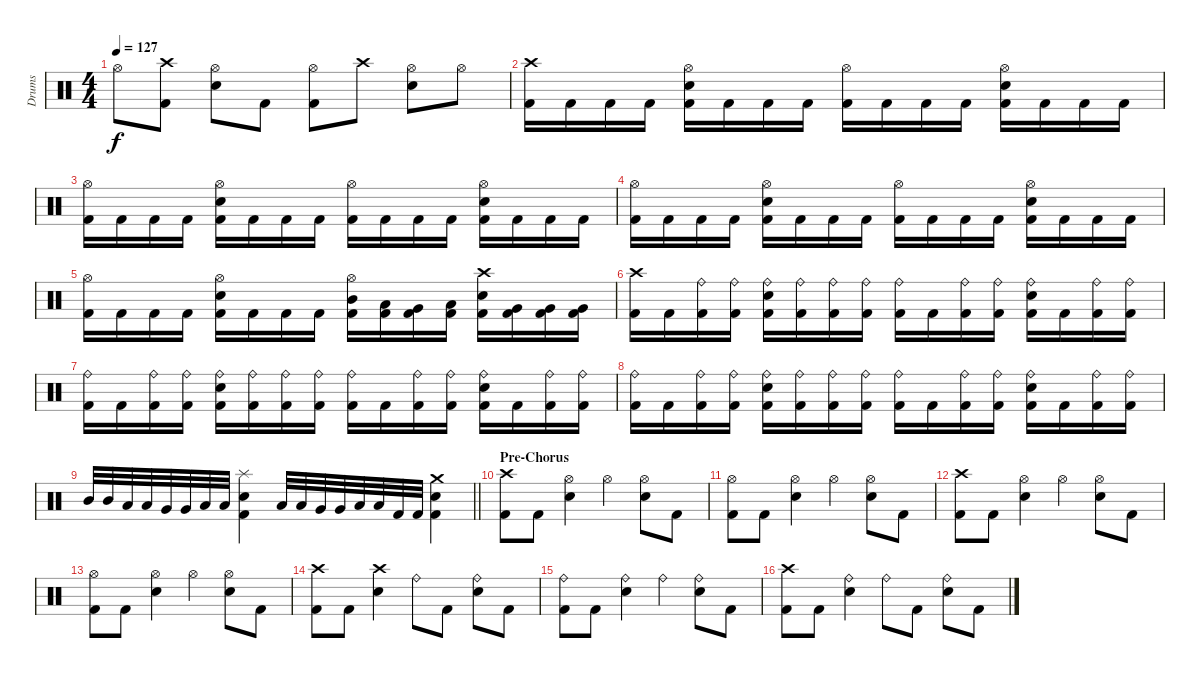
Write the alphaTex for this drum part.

\track ("Drums" "Drums") {instrument percussion}
\staff {score}
\articulation defaults
\ts (4 4)
\tempo 127
\clef neutral
\ks c "Hi-Hat (open)".8{dy f}
("Crash high (hit)" "Kick (hit) 2").8 ("Hi-Hat (open)" "Electric Snare (hit)").8 "Kick (hit) 2".8 ("Hi-Hat (open)" "Kick (hit) 2").8 "Crash high (hit)".8 ("Hi-Hat (open)" "Electric Snare (hit)").8 "Hi-Hat (open)".8 |
("Crash high (hit)" "Kick (hit) 2").16 "Kick (hit) 2".16 "Kick (hit) 2".16 "Kick (hit) 2".16 ("Hi-Hat (open)" "Electric Snare (hit)" "Kick (hit) 2").16 "Kick (hit) 2".16 "Kick (hit) 2".16 "Kick (hit) 2".16 ("Hi-Hat (open)" "Kick (hit) 2").16 "Kick (hit) 2".16 "Kick (hit) 2".16 "Kick (hit) 2".16 ("Hi-Hat (open)" "Electric Snare (hit)" "Kick (hit) 2").16 "Kick (hit) 2".16 "Kick (hit) 2".16 "Kick (hit) 2".16 |
("Hi-Hat (open)" "Kick (hit) 2").16 "Kick (hit) 2".16 "Kick (hit) 2".16 "Kick (hit) 2".16 ("Hi-Hat (open)" "Electric Snare (hit)" "Kick (hit) 2").16 "Kick (hit) 2".16 "Kick (hit) 2".16 "Kick (hit) 2".16 ("Hi-Hat (open)" "Kick (hit) 2").16 "Kick (hit) 2".16 "Kick (hit) 2".16 "Kick (hit) 2".16 ("Hi-Hat (open)" "Electric Snare (hit)" "Kick (hit) 2").16 "Kick (hit) 2".16 "Kick (hit) 2".16 "Kick (hit) 2".16 |
("Hi-Hat (open)" "Kick (hit) 2").16 "Kick (hit) 2".16 "Kick (hit) 2".16 "Kick (hit) 2".16 ("Hi-Hat (open)" "Electric Snare (hit)" "Kick (hit) 2").16 "Kick (hit) 2".16 "Kick (hit) 2".16 "Kick (hit) 2".16 ("Hi-Hat (open)" "Kick (hit) 2").16 "Kick (hit) 2".16 "Kick (hit) 2".16 "Kick (hit) 2".16 ("Hi-Hat (open)" "Electric Snare (hit)" "Kick (hit) 2").16 "Kick (hit) 2".16 "Kick (hit) 2".16 "Kick (hit) 2".16 |
("Hi-Hat (open)" "Kick (hit) 2").16 "Kick (hit) 2".16 "Kick (hit) 2".16 "Kick (hit) 2".16 ("Hi-Hat (open)" "Electric Snare (hit)" "Kick (hit) 2").16 "Kick (hit) 2".16 "Kick (hit) 2".16 "Kick (hit) 2".16 ("Hi-Hat (open)" "Mid Tom (hit)" "Kick (hit) 2").16 ("Low Tom (hit)" "Kick (hit) 2").16 ("Very Low Tom (hit)" "Kick (hit) 2").16 ("Low Floor Tom (hit)" "Kick (hit) 2").16 ("Crash high (hit)" "Electric Snare (hit)" "Kick (hit) 2").16 ("Very Low Tom (hit)" "Kick (hit) 2").16 ("Very Low Tom (hit)" "Kick (hit) 2").16 ("Very Low Tom (hit)" "Kick (hit) 2").16 |
("Crash high (hit)" "Kick (hit) 2").16 "Kick (hit) 2".16 ("Ride (bell)" "Kick (hit) 2").16 ("Ride (bell)" "Kick (hit) 2").16 ("Ride (bell)" "Electric Snare (hit)" "Kick (hit) 2").16 ("Ride (bell)" "Kick (hit) 2").16 ("Ride (bell)" "Kick (hit) 2").16 ("Ride (bell)" "Kick (hit) 2").16 ("Ride (bell)" "Kick (hit) 2").16 "Kick (hit) 2".16 ("Ride (bell)" "Kick (hit) 2").16 ("Ride (bell)" "Kick (hit) 2").16 ("Ride (bell)" "Electric Snare (hit)" "Kick (hit) 2").16 "Kick (hit) 2".16 ("Ride (bell)" "Kick (hit) 2").16 ("Ride (bell)" "Kick (hit) 2").16 |
("Ride (bell)" "Kick (hit) 2").16 "Kick (hit) 2".16 ("Ride (bell)" "Kick (hit) 2").16 ("Ride (bell)" "Kick (hit) 2").16 ("Ride (bell)" "Electric Snare (hit)" "Kick (hit) 2").16 ("Ride (bell)" "Kick (hit) 2").16 ("Ride (bell)" "Kick (hit) 2").16 ("Ride (bell)" "Kick (hit) 2").16 ("Ride (bell)" "Kick (hit) 2").16 "Kick (hit) 2".16 ("Ride (bell)" "Kick (hit) 2").16 ("Ride (bell)" "Kick (hit) 2").16 ("Ride (bell)" "Electric Snare (hit)" "Kick (hit) 2").16 "Kick (hit) 2".16 ("Ride (bell)" "Kick (hit) 2").16 ("Ride (bell)" "Kick (hit) 2").16 |
("Ride (bell)" "Kick (hit) 2").16 "Kick (hit) 2".16 ("Ride (bell)" "Kick (hit) 2").16 ("Ride (bell)" "Kick (hit) 2").16 ("Ride (bell)" "Electric Snare (hit)" "Kick (hit) 2").16 ("Ride (bell)" "Kick (hit) 2").16 ("Ride (bell)" "Kick (hit) 2").16 ("Ride (bell)" "Kick (hit) 2").16 ("Ride (bell)" "Kick (hit) 2").16 "Kick (hit) 2".16 ("Ride (bell)" "Kick (hit) 2").16 ("Ride (bell)" "Kick (hit) 2").16 ("Ride (bell)" "Electric Snare (hit)" "Kick (hit) 2").16 "Kick (hit) 2".16 ("Ride (bell)" "Kick (hit) 2").16 ("Ride (bell)" "Kick (hit) 2").16 |
\barLineRight lightlight "Mid Tom (hit)".32 "Mid Tom (hit)".32 "Low Tom (hit)".32 "Low Tom (hit)".32 "Very Low Tom (hit)".32 "Very Low Tom (hit)".32 "Low Floor Tom (hit)".32 "Low Floor Tom (hit)".32
("Splash (hit)" "Electric Snare (hit)" "Kick (hit) 2").4 "Low Tom (hit)".32 "Low Tom (hit)".32 "Very Low Tom (hit)".32 "Very Low Tom (hit)".32 "Low Floor Tom (hit)".32 "Low Floor Tom (hit)".32 "Kick (hit) 2".32 "Kick (hit) 2".32 ("Crash medium (hit)" "Electric Snare (hit)" "Kick (hit) 2").4 |
\section ("" "Pre-Chorus")
("Crash high (hit)" "Kick (hit) 2").8 "Kick (hit) 2".8 ("Hi-Hat (open)" "Electric Snare (hit)").4 "Hi-Hat (open)".4 ("Hi-Hat (open)" "Electric Snare (hit)").8 "Kick (hit) 2".8 |
("Hi-Hat (open)" "Kick (hit) 2").8 "Kick (hit) 2".8 ("Hi-Hat (open)" "Electric Snare (hit)").4 "Hi-Hat (open)".4 ("Hi-Hat (open)" "Electric Snare (hit)").8 "Kick (hit) 2".8 |
("Crash high (hit)" "Kick (hit) 2").8 "Kick (hit) 2".8 ("Hi-Hat (open)" "Electric Snare (hit)").4 "Hi-Hat (open)".4 ("Hi-Hat (open)" "Electric Snare (hit)").8 "Kick (hit) 2".8 |
("Hi-Hat (open)" "Kick (hit) 2").8 "Kick (hit) 2".8 ("Hi-Hat (open)" "Electric Snare (hit)").4 "Hi-Hat (open)".4 ("Hi-Hat (open)" "Electric Snare (hit)").8 "Kick (hit) 2".8 |
("Crash high (hit)" "Kick (hit) 2").8 "Kick (hit) 2".8 ("Crash high (hit)" "Electric Snare (hit)").4 "Ride (bell)".8 "Kick (hit) 2".8 ("Ride (bell)" "Electric Snare (hit)").8 "Kick (hit) 2".8 |
("Ride (bell)" "Kick (hit) 2").8 "Kick (hit) 2".8 ("Ride (bell)" "Electric Snare (hit)").4 "Ride (bell)".4 ("Ride (bell)" "Electric Snare (hit)").8 "Kick (hit) 2".8 |
("Crash high (hit)" "Kick (hit) 2").8 "Kick (hit) 2".8 ("Ride (bell)" "Electric Snare (hit)").4 "Ride (bell)".8 "Kick (hit) 2".8 ("Ride (bell)" "Electric Snare (hit)").8 "Kick (hit) 2".8
